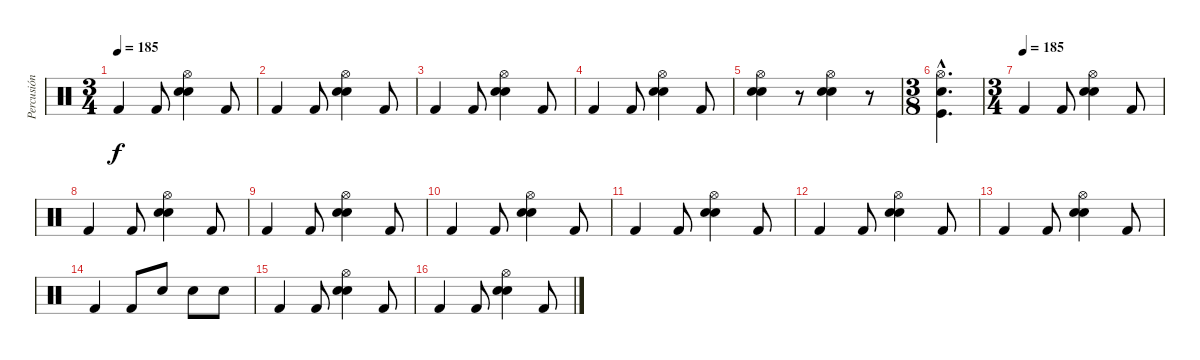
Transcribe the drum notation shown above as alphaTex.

\track ("Percusión" "Percusión") {instrument percussion}
\staff {score}
\articulation defaults
\ts (3 4)
\tempo 185
\clef neutral
\ks c "Kick (hit) 2".4{dy f} "Kick (hit) 2".8
("Hi-Hat (open)" "Electric Snare (hit)" "Snare (hit) 2").4 "Kick (hit) 2".8 |
"Kick (hit) 2".4 "Kick (hit) 2".8 ("Hi-Hat (open)" "Electric Snare (hit)" "Snare (hit) 2").4 "Kick (hit) 2".8 |
"Kick (hit) 2".4 "Kick (hit) 2".8 ("Hi-Hat (open)" "Electric Snare (hit)" "Snare (hit) 2").4 "Kick (hit) 2".8 |
"Kick (hit) 2".4 "Kick (hit) 2".8 ("Hi-Hat (open)" "Electric Snare (hit)" "Snare (hit) 2").4 "Kick (hit) 2".8 |
("Hi-Hat (open)" "Electric Snare (hit)" "Snare (hit) 2").4 r.8 ("Hi-Hat (open)" "Electric Snare (hit)" "Snare (hit) 2").4 r.8 |
\ts (3 8)
("Hi-Hat (open)"{hac} "Electric Snare (hit)"{hac} "Kick (hit)"{hac}).4{d} |
\ts (3 4)
\tempo (185)
"Kick (hit) 2".4 "Kick (hit) 2".8 ("Hi-Hat (open)" "Electric Snare (hit)" "Snare (hit) 2").4 "Kick (hit) 2".8 |
"Kick (hit) 2".4 "Kick (hit) 2".8 ("Hi-Hat (open)" "Electric Snare (hit)" "Snare (hit) 2").4 "Kick (hit) 2".8 |
"Kick (hit) 2".4 "Kick (hit) 2".8 ("Hi-Hat (open)" "Electric Snare (hit)" "Snare (hit) 2").4 "Kick (hit) 2".8 |
"Kick (hit) 2".4 "Kick (hit) 2".8 ("Hi-Hat (open)" "Electric Snare (hit)" "Snare (hit) 2").4 "Kick (hit) 2".8 |
"Kick (hit) 2".4 "Kick (hit) 2".8 ("Hi-Hat (open)" "Electric Snare (hit)" "Snare (hit) 2").4 "Kick (hit) 2".8 |
"Kick (hit) 2".4 "Kick (hit) 2".8 ("Hi-Hat (open)" "Electric Snare (hit)" "Snare (hit) 2").4 "Kick (hit) 2".8 |
"Kick (hit) 2".4 "Kick (hit) 2".8 ("Hi-Hat (open)" "Electric Snare (hit)" "Snare (hit) 2").4 "Kick (hit) 2".8 |
"Kick (hit) 2".4 "Kick (hit) 2".8 "Electric Snare (hit)".8 "Electric Snare (hit)".8 "Electric Snare (hit)".8 |
"Kick (hit) 2".4 "Kick (hit) 2".8 ("Hi-Hat (open)" "Electric Snare (hit)" "Snare (hit) 2").4 "Kick (hit) 2".8 |
"Kick (hit) 2".4 "Kick (hit) 2".8 ("Hi-Hat (open)" "Electric Snare (hit)" "Snare (hit) 2").4 "Kick (hit) 2".8
